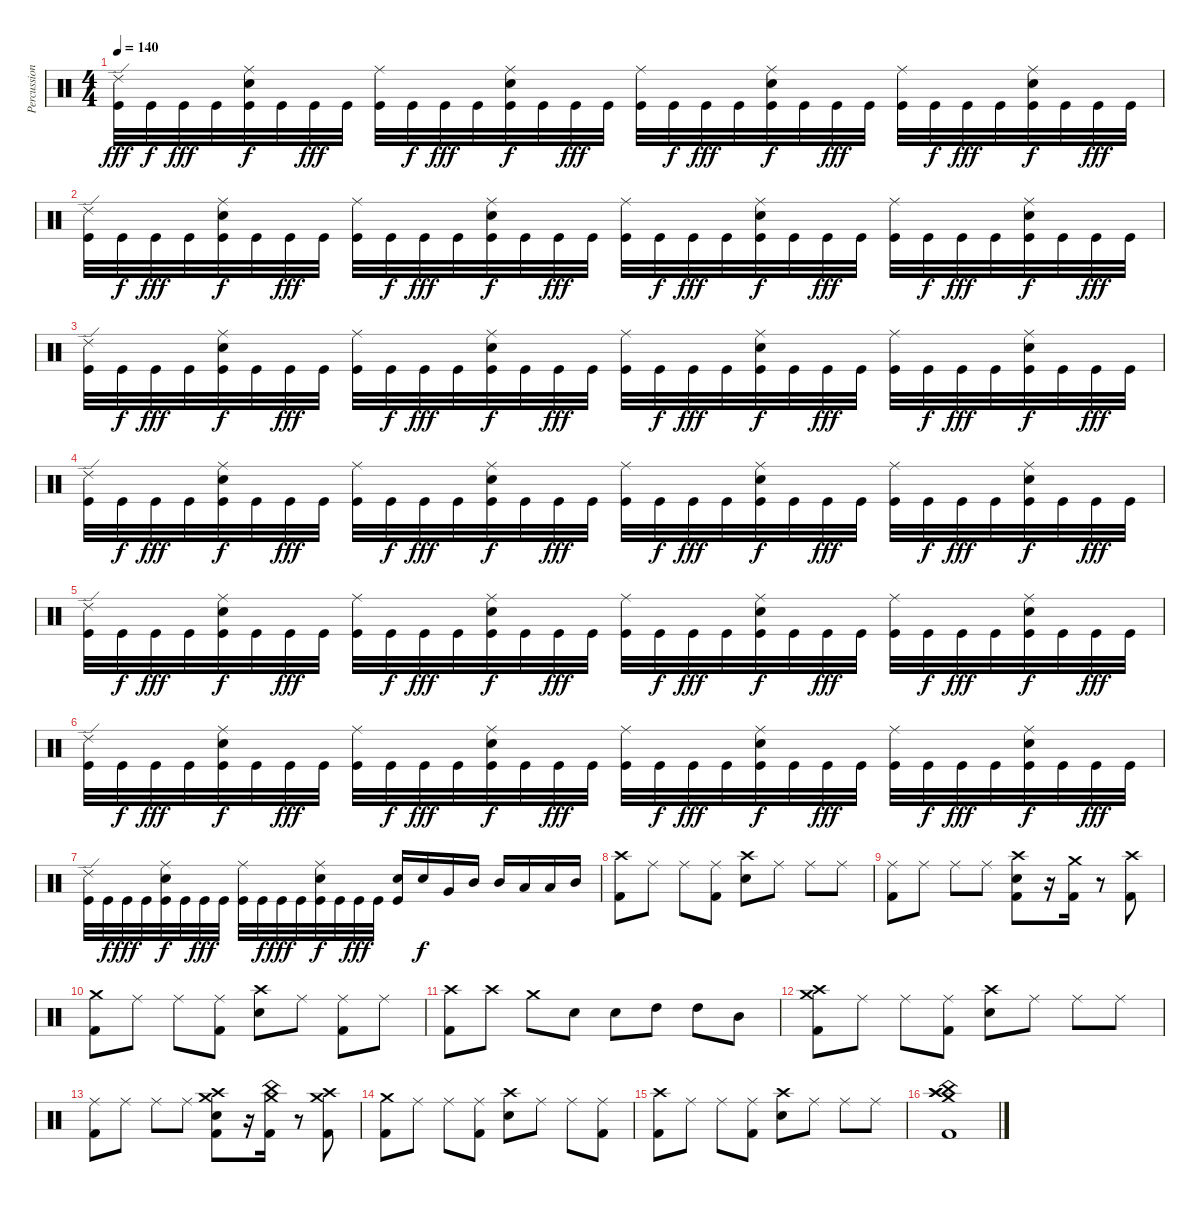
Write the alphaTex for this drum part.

\track ("Percussion" "Percussion") {instrument percussion}
\staff {score}
\articulation defaults
\ts (4 4)
\tempo 140
\clef neutral
\ks c
("Ride (edge) 2" "Kick (hit)").32{dy fff} "Kick (hit)".32{dy f} "Kick (hit)".32{dy fff} "Kick (hit)".32 ("Electric Snare (hit)" "Ride (middle)" "Kick (hit)").32{dy f} "Kick (hit)".32 "Kick (hit)".32{dy fff} "Kick (hit)".32 ("Ride (middle)" "Kick (hit)").32 "Kick (hit)".32{dy f} "Kick (hit)".32{dy fff} "Kick (hit)".32 ("Electric Snare (hit)" "Ride (middle)" "Kick (hit)").32{dy f} "Kick (hit)".32 "Kick (hit)".32{dy fff} "Kick (hit)".32 ("Ride (middle)" "Kick (hit)").32 "Kick (hit)".32{dy f} "Kick (hit)".32{dy fff} "Kick (hit)".32 ("Electric Snare (hit)" "Ride (middle)" "Kick (hit)").32{dy f} "Kick (hit)".32 "Kick (hit)".32{dy fff} "Kick (hit)".32 ("Ride (middle)" "Kick (hit)").32 "Kick (hit)".32{dy f} "Kick (hit)".32{dy fff} "Kick (hit)".32 ("Electric Snare (hit)" "Ride (middle)" "Kick (hit)").32{dy f} "Kick (hit)".32 "Kick (hit)".32{dy fff} "Kick (hit)".32 |
("Ride (edge) 2" "Kick (hit)").32 "Kick (hit)".32{dy f} "Kick (hit)".32{dy fff} "Kick (hit)".32 ("Electric Snare (hit)" "Ride (middle)" "Kick (hit)").32{dy f} "Kick (hit)".32 "Kick (hit)".32{dy fff} "Kick (hit)".32 ("Ride (middle)" "Kick (hit)").32 "Kick (hit)".32{dy f} "Kick (hit)".32{dy fff} "Kick (hit)".32 ("Electric Snare (hit)" "Ride (middle)" "Kick (hit)").32{dy f} "Kick (hit)".32 "Kick (hit)".32{dy fff} "Kick (hit)".32 ("Ride (middle)" "Kick (hit)").32 "Kick (hit)".32{dy f} "Kick (hit)".32{dy fff} "Kick (hit)".32 ("Electric Snare (hit)" "Ride (middle)" "Kick (hit)").32{dy f} "Kick (hit)".32 "Kick (hit)".32{dy fff} "Kick (hit)".32 ("Ride (middle)" "Kick (hit)").32 "Kick (hit)".32{dy f} "Kick (hit)".32{dy fff} "Kick (hit)".32 ("Electric Snare (hit)" "Ride (middle)" "Kick (hit)").32{dy f} "Kick (hit)".32 "Kick (hit)".32{dy fff} "Kick (hit)".32 |
("Ride (edge) 2" "Kick (hit)").32 "Kick (hit)".32{dy f} "Kick (hit)".32{dy fff} "Kick (hit)".32 ("Electric Snare (hit)" "Ride (middle)" "Kick (hit)").32{dy f} "Kick (hit)".32 "Kick (hit)".32{dy fff} "Kick (hit)".32 ("Ride (middle)" "Kick (hit)").32 "Kick (hit)".32{dy f} "Kick (hit)".32{dy fff} "Kick (hit)".32 ("Electric Snare (hit)" "Ride (middle)" "Kick (hit)").32{dy f} "Kick (hit)".32 "Kick (hit)".32{dy fff} "Kick (hit)".32 ("Ride (middle)" "Kick (hit)").32 "Kick (hit)".32{dy f} "Kick (hit)".32{dy fff} "Kick (hit)".32 ("Electric Snare (hit)" "Ride (middle)" "Kick (hit)").32{dy f} "Kick (hit)".32 "Kick (hit)".32{dy fff} "Kick (hit)".32 ("Ride (middle)" "Kick (hit)").32 "Kick (hit)".32{dy f} "Kick (hit)".32{dy fff} "Kick (hit)".32 ("Electric Snare (hit)" "Ride (middle)" "Kick (hit)").32{dy f} "Kick (hit)".32 "Kick (hit)".32{dy fff} "Kick (hit)".32 |
("Ride (edge) 2" "Kick (hit)").32 "Kick (hit)".32{dy f} "Kick (hit)".32{dy fff} "Kick (hit)".32 ("Electric Snare (hit)" "Ride (middle)" "Kick (hit)").32{dy f} "Kick (hit)".32 "Kick (hit)".32{dy fff} "Kick (hit)".32 ("Ride (middle)" "Kick (hit)").32 "Kick (hit)".32{dy f} "Kick (hit)".32{dy fff} "Kick (hit)".32 ("Electric Snare (hit)" "Ride (middle)" "Kick (hit)").32{dy f} "Kick (hit)".32 "Kick (hit)".32{dy fff} "Kick (hit)".32 ("Ride (middle)" "Kick (hit)").32 "Kick (hit)".32{dy f} "Kick (hit)".32{dy fff} "Kick (hit)".32 ("Electric Snare (hit)" "Ride (middle)" "Kick (hit)").32{dy f} "Kick (hit)".32 "Kick (hit)".32{dy fff} "Kick (hit)".32 ("Ride (middle)" "Kick (hit)").32 "Kick (hit)".32{dy f} "Kick (hit)".32{dy fff} "Kick (hit)".32 ("Electric Snare (hit)" "Ride (middle)" "Kick (hit)").32{dy f} "Kick (hit)".32 "Kick (hit)".32{dy fff} "Kick (hit)".32 |
("Ride (edge) 2" "Kick (hit)").32 "Kick (hit)".32{dy f} "Kick (hit)".32{dy fff} "Kick (hit)".32 ("Electric Snare (hit)" "Ride (middle)" "Kick (hit)").32{dy f} "Kick (hit)".32 "Kick (hit)".32{dy fff} "Kick (hit)".32 ("Ride (middle)" "Kick (hit)").32 "Kick (hit)".32{dy f} "Kick (hit)".32{dy fff} "Kick (hit)".32 ("Electric Snare (hit)" "Ride (middle)" "Kick (hit)").32{dy f} "Kick (hit)".32 "Kick (hit)".32{dy fff} "Kick (hit)".32 ("Ride (middle)" "Kick (hit)").32 "Kick (hit)".32{dy f} "Kick (hit)".32{dy fff} "Kick (hit)".32 ("Electric Snare (hit)" "Ride (middle)" "Kick (hit)").32{dy f} "Kick (hit)".32 "Kick (hit)".32{dy fff} "Kick (hit)".32 ("Ride (middle)" "Kick (hit)").32 "Kick (hit)".32{dy f} "Kick (hit)".32{dy fff} "Kick (hit)".32 ("Electric Snare (hit)" "Ride (middle)" "Kick (hit)").32{dy f} "Kick (hit)".32 "Kick (hit)".32{dy fff} "Kick (hit)".32 |
("Ride (edge) 2" "Kick (hit)").32 "Kick (hit)".32{dy f} "Kick (hit)".32{dy fff} "Kick (hit)".32 ("Electric Snare (hit)" "Ride (middle)" "Kick (hit)").32{dy f} "Kick (hit)".32 "Kick (hit)".32{dy fff} "Kick (hit)".32 ("Ride (middle)" "Kick (hit)").32 "Kick (hit)".32{dy f} "Kick (hit)".32{dy fff} "Kick (hit)".32 ("Electric Snare (hit)" "Ride (middle)" "Kick (hit)").32{dy f} "Kick (hit)".32 "Kick (hit)".32{dy fff} "Kick (hit)".32 ("Ride (middle)" "Kick (hit)").32 "Kick (hit)".32{dy f} "Kick (hit)".32{dy fff} "Kick (hit)".32 ("Electric Snare (hit)" "Ride (middle)" "Kick (hit)").32{dy f} "Kick (hit)".32 "Kick (hit)".32{dy fff} "Kick (hit)".32 ("Ride (middle)" "Kick (hit)").32 "Kick (hit)".32{dy f} "Kick (hit)".32{dy fff} "Kick (hit)".32 ("Electric Snare (hit)" "Ride (middle)" "Kick (hit)").32{dy f} "Kick (hit)".32 "Kick (hit)".32{dy fff} "Kick (hit)".32 |
("Ride (edge) 2" "Kick (hit)").32 "Kick (hit)".32{dy f} "Kick (hit)".32{dy fff} "Kick (hit)".32 ("Electric Snare (hit)" "Ride (middle)" "Kick (hit)").32{dy f} "Kick (hit)".32 "Kick (hit)".32{dy fff} "Kick (hit)".32 ("Ride (middle)" "Kick (hit)").32 "Kick (hit)".32{dy f} "Kick (hit)".32{dy fff} "Kick (hit)".32 ("Electric Snare (hit)" "Ride (middle)" "Kick (hit)").32{dy f} "Kick (hit)".32 "Kick (hit)".32{dy fff} "Kick (hit)".32 ("Electric Snare (hit)" "Kick (hit)").16 "Electric Snare (hit)".16{dy f} "Very Low Tom (hit)".16 "Mid Tom (hit)".16 "Mid Tom (hit)".16 "Low Tom (hit)".16 "Low Tom (hit)".16 "Mid Tom (hit)".16 |
("Kick (hit) 2" "Crash high (hit)").8 "Ride (middle)".8 "Ride (middle)".8 ("Kick (hit) 2" "Ride (middle)").8 ("Electric Snare (hit)" "Crash high (hit)").8 "Ride (middle)".8 "Ride (middle)".8 "Ride (middle)".8 |
("Kick (hit) 2" "Ride (middle)").8 "Ride (middle)".8 "Ride (middle)".8 "Ride (middle)".8 ("Kick (hit) 2" "Electric Snare (hit)" "Crash high (hit)").8 r.16 ("Kick (hit) 2" "Crash medium (hit)").16 r.8 ("Kick (hit) 2" "Crash high (hit)").8 |
("Kick (hit) 2" "Crash medium (hit)").8 "Ride (middle)".8 "Ride (middle)".8 ("Kick (hit) 2" "Ride (middle)").8 ("Electric Snare (hit)" "Crash high (hit)").8 "Ride (middle)".8 ("Kick (hit) 2" "Ride (middle)").8 "Ride (middle)".8 |
("Kick (hit) 2" "Crash high (hit)").8 "Crash high (hit)".8 "Crash medium (hit)".8 "Electric Snare (hit)".8 "Electric Snare (hit)".8 "High Tom (hit)".8 "High Tom (hit)".8 "Mid Tom (hit)".8 |
("Kick (hit) 2" "Crash high (hit)" "Crash medium (hit)").8 "Ride (middle)".8 "Ride (middle)".8 ("Kick (hit) 2" "Ride (middle)").8 ("Electric Snare (hit)" "Crash high (hit)").8 "Ride (middle)".8 "Ride (middle)".8 "Ride (middle)".8 |
("Kick (hit) 2" "Ride (middle)").8 "Ride (middle)".8 "Ride (middle)".8 "Ride (middle)".8 ("Kick (hit) 2" "Electric Snare (hit)" "Crash high (hit)" "Crash medium (hit)").8 r.16 ("Kick (hit) 2" "Crash medium (hit)" "China (hit)").16 r.8 ("Kick (hit) 2" "Crash high (hit)" "Crash medium (hit)").8 |
("Kick (hit) 2" "Crash medium (hit)").8 "Ride (middle)".8 "Ride (middle)".8 ("Kick (hit) 2" "Ride (middle)").8 ("Electric Snare (hit)" "Crash high (hit)").8 "Ride (middle)".8 "Ride (middle)".8 ("Kick (hit) 2" "Ride (middle)").8 |
("Kick (hit) 2" "Crash high (hit)").8 "Ride (middle)".8 "Ride (middle)".8 ("Kick (hit) 2" "Ride (middle)").8 ("Electric Snare (hit)" "Crash high (hit)").8 "Ride (middle)".8 "Ride (middle)".8 "Ride (middle)".8 |
("Kick (hit) 2" "Crash high (hit)" "Crash high (hit)" "China (hit)" "Crash medium (hit)").1
